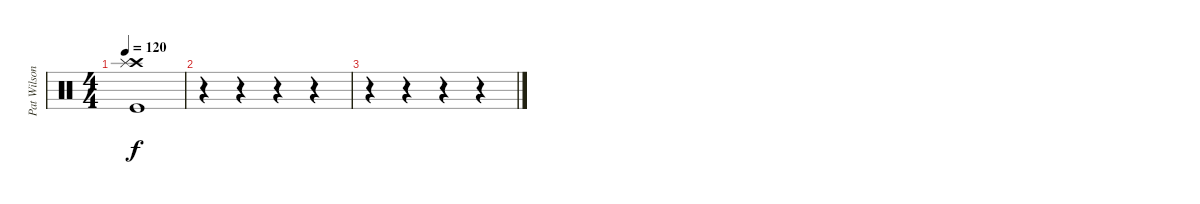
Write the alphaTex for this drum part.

\track ("Pat Wilson" "Pat Wilson") {instrument percussion}
\staff {score}
\articulation defaults
\ts (4 4)
\tempo 120
\clef neutral
\ks c
("Crash high (hit)" "Splash (hit)" "Kick (hit)").1{dy f} |
r.4 r.4 r.4 r.4 |
r.4 r.4 r.4 r.4
